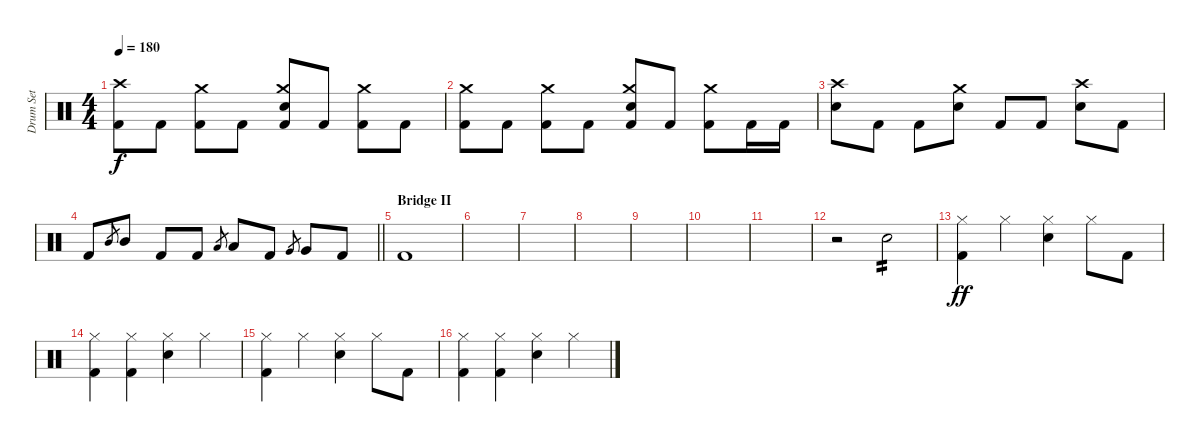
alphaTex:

\track ("Drum Set" "Drum Set") {instrument percussion}
\staff {score}
\articulation defaults
\ts (4 4)
\tempo 180
\clef neutral
\ks c
("Crash high (hit)" "Kick (hit) 2").8{dy f} "Kick (hit) 2".8 ("Crash medium (hit)" "Kick (hit) 2").8 "Kick (hit) 2".8 ("Crash medium (hit)" "Snare (hit) 2" "Kick (hit) 2").8 "Kick (hit) 2".8 ("Crash medium (hit)" "Kick (hit) 2").8 "Kick (hit) 2".8 |
("Crash medium (hit)" "Kick (hit) 2").8 "Kick (hit) 2".8 ("Crash medium (hit)" "Kick (hit) 2").8 "Kick (hit) 2".8 ("Crash medium (hit)" "Snare (hit) 2" "Kick (hit) 2").8 "Kick (hit) 2".8 ("Crash medium (hit)" "Kick (hit) 2").8 "Kick (hit) 2".16 "Kick (hit) 2".16 |
("Crash high (hit)" "Snare (hit) 2").8 "Kick (hit) 2".8 "Kick (hit) 2".8 ("Crash medium (hit)" "Snare (hit) 2").8 "Kick (hit) 2".8 "Kick (hit) 2".8 ("Crash high (hit)" "Snare (hit) 2").8 "Kick (hit) 2".8 |
\barLineRight lightlight "Kick (hit) 2".8 "Mid Tom (hit)".8{gr} "Mid Tom (hit)".8 "Kick (hit) 2".8 "Kick (hit) 2".8 "Low Tom (hit)".8{gr} "Low Tom (hit)".8 "Kick (hit) 2".8 "Very Low Tom (hit)".8{gr} "Very Low Tom (hit)".8 "Kick (hit) 2".8
|
\section ("" "Bridge II")
"Kick (hit) 2".1 |
|
|
|
|
|
|
r.2 "Snare (hit) 2".2{tp 2} |
("Hi-Hat (closed)" "Kick (hit) 2").4{dy ff} "Hi-Hat (closed)".4 ("Hi-Hat (closed)" "Snare (hit) 2").4 "Hi-Hat (closed)".8 "Kick (hit) 2".8 |
("Hi-Hat (closed)" "Kick (hit) 2").4 ("Hi-Hat (closed)" "Kick (hit) 2").4 ("Hi-Hat (closed)" "Snare (hit) 2").4 "Hi-Hat (closed)".4 |
("Hi-Hat (closed)" "Kick (hit) 2").4 "Hi-Hat (closed)".4 ("Hi-Hat (closed)" "Snare (hit) 2").4 "Hi-Hat (closed)".8 "Kick (hit) 2".8 |
("Hi-Hat (closed)" "Kick (hit) 2").4 ("Hi-Hat (closed)" "Kick (hit) 2").4 ("Hi-Hat (closed)" "Snare (hit) 2").4 "Hi-Hat (closed)".4
